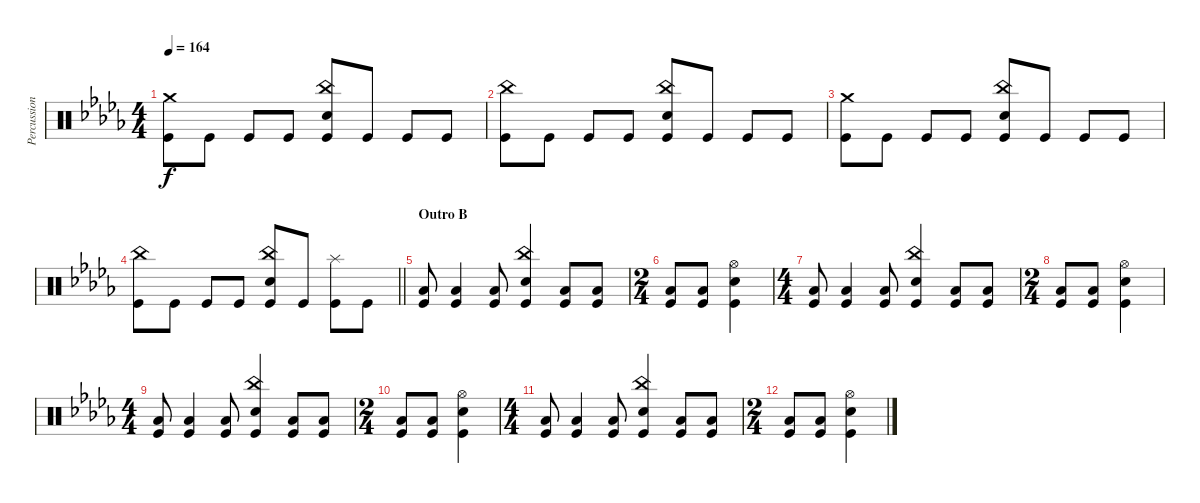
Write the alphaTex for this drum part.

\track ("Percussion" "Percussion") {instrument percussion}
\staff {score}
\articulation defaults
\ts (4 4)
\tempo 164
\clef neutral
\ks db
("Crash medium (hit)" "Kick (hit)").8{dy f} "Kick (hit)".8 "Kick (hit)".8 "Kick (hit)".8 ("China (hit)" "Electric Snare (hit)" "Kick (hit)").8 "Kick (hit)".8 "Kick (hit)".8 "Kick (hit)".8 |
("China (hit)" "Kick (hit)").8 "Kick (hit)".8 "Kick (hit)".8 "Kick (hit)".8 ("China (hit)" "Electric Snare (hit)" "Kick (hit)").8 "Kick (hit)".8 "Kick (hit)".8 "Kick (hit)".8 |
("Crash medium (hit)" "Kick (hit)").8 "Kick (hit)".8 "Kick (hit)".8 "Kick (hit)".8 ("China (hit)" "Electric Snare (hit)" "Kick (hit)").8 "Kick (hit)".8 "Kick (hit)".8 "Kick (hit)".8 |
\barLineRight lightlight
("China (hit)" "Kick (hit)").8 "Kick (hit)".8 "Kick (hit)".8 "Kick (hit)".8 ("China (hit)" "Electric Snare (hit)" "Kick (hit)").8 "Kick (hit)".8 ("Splash (hit)" "Kick (hit)").8 "Kick (hit)".8 |
\section ("" "Outro B")
("Low Floor Tom (hit)" "Kick (hit)").8 ("Low Floor Tom (hit)" "Kick (hit)").4 ("Low Floor Tom (hit)" "Kick (hit)").8 ("China (hit)" "Electric Snare (hit)" "Kick (hit)").4 ("Low Floor Tom (hit)" "Kick (hit)").8 ("Low Floor Tom (hit)" "Kick (hit)").8 |
\ts (2 4)
("Low Floor Tom (hit)" "Kick (hit)").8 ("Low Floor Tom (hit)" "Kick (hit)").8 ("Hi-Hat (open)" "Electric Snare (hit)" "Kick (hit)").4 |
\ts (4 4)
("Low Floor Tom (hit)" "Kick (hit)").8 ("Low Floor Tom (hit)" "Kick (hit)").4 ("Low Floor Tom (hit)" "Kick (hit)").8 ("China (hit)" "Electric Snare (hit)" "Kick (hit)").4 ("Low Floor Tom (hit)" "Kick (hit)").8 ("Low Floor Tom (hit)" "Kick (hit)").8 |
\ts (2 4)
("Low Floor Tom (hit)" "Kick (hit)").8 ("Low Floor Tom (hit)" "Kick (hit)").8 ("Hi-Hat (open)" "Electric Snare (hit)" "Kick (hit)").4 |
\ts (4 4)
("Low Floor Tom (hit)" "Kick (hit)").8 ("Low Floor Tom (hit)" "Kick (hit)").4 ("Low Floor Tom (hit)" "Kick (hit)").8 ("China (hit)" "Electric Snare (hit)" "Kick (hit)").4 ("Low Floor Tom (hit)" "Kick (hit)").8 ("Low Floor Tom (hit)" "Kick (hit)").8 |
\ts (2 4)
("Low Floor Tom (hit)" "Kick (hit)").8 ("Low Floor Tom (hit)" "Kick (hit)").8 ("Hi-Hat (open)" "Electric Snare (hit)" "Kick (hit)").4 |
\ts (4 4)
("Low Floor Tom (hit)" "Kick (hit)").8 ("Low Floor Tom (hit)" "Kick (hit)").4 ("Low Floor Tom (hit)" "Kick (hit)").8 ("China (hit)" "Electric Snare (hit)" "Kick (hit)").4 ("Low Floor Tom (hit)" "Kick (hit)").8 ("Low Floor Tom (hit)" "Kick (hit)").8 |
\ts (2 4)
("Low Floor Tom (hit)" "Kick (hit)").8 ("Low Floor Tom (hit)" "Kick (hit)").8 ("Hi-Hat (open)" "Electric Snare (hit)" "Kick (hit)").4
